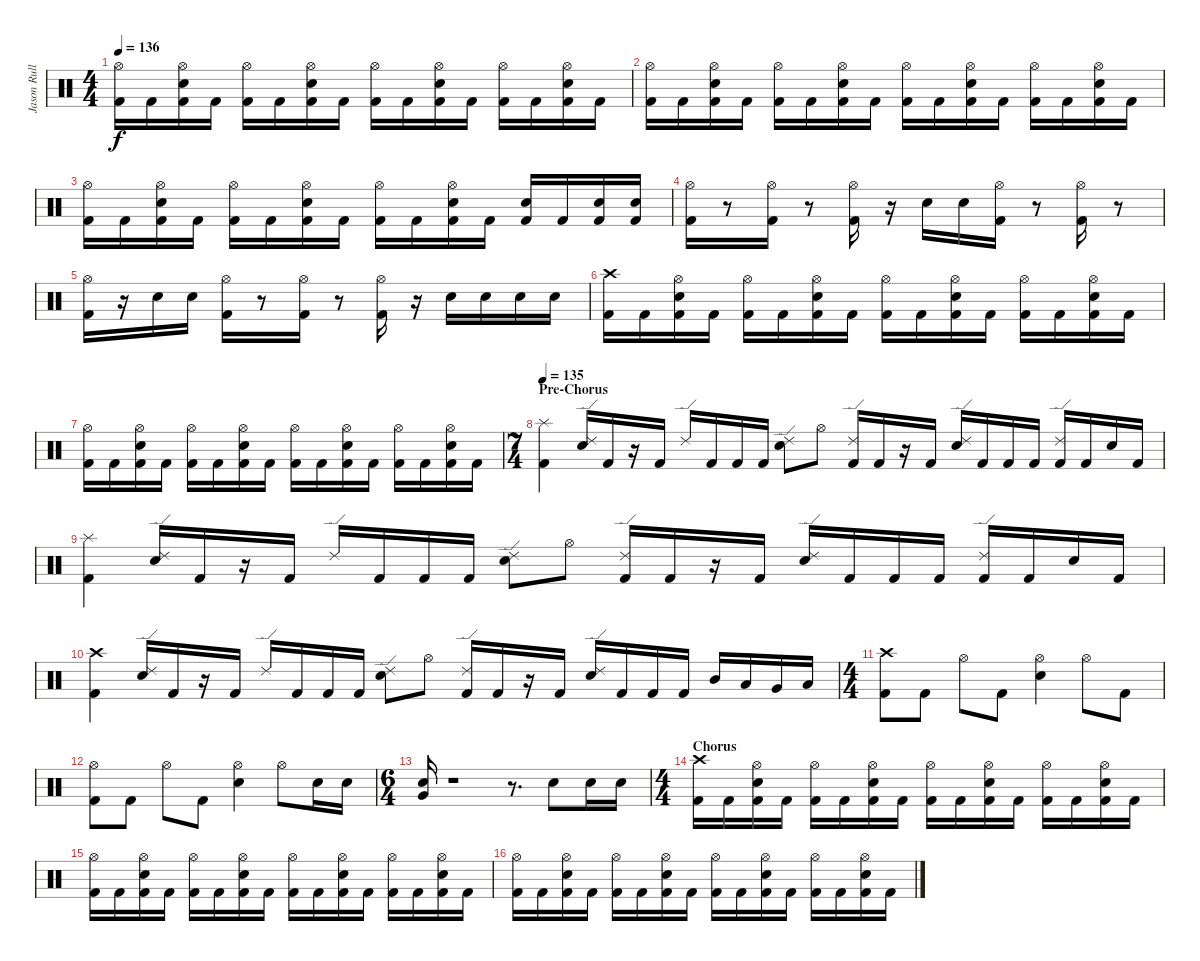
\track ("Jason Rullo" "Jason Rull") {instrument percussion}
\staff {score}
\articulation defaults
\ts (4 4)
\tempo 136
\clef neutral
\ks c
("Kick (hit) 2" "Hi-Hat (open)").16{dy f} "Kick (hit) 2".16 ("Kick (hit) 2" "Electric Snare (hit)" "Hi-Hat (open)").16 "Kick (hit) 2".16 ("Kick (hit) 2" "Hi-Hat (open)").16 "Kick (hit) 2".16 ("Kick (hit) 2" "Electric Snare (hit)" "Hi-Hat (open)").16 "Kick (hit) 2".16 ("Kick (hit) 2" "Hi-Hat (open)").16 "Kick (hit) 2".16 ("Kick (hit) 2" "Electric Snare (hit)" "Hi-Hat (open)").16 "Kick (hit) 2".16 ("Kick (hit) 2" "Hi-Hat (open)").16 "Kick (hit) 2".16 ("Kick (hit) 2" "Electric Snare (hit)" "Hi-Hat (open)").16 "Kick (hit) 2".16 |
("Kick (hit) 2" "Hi-Hat (open)").16 "Kick (hit) 2".16 ("Kick (hit) 2" "Electric Snare (hit)" "Hi-Hat (open)").16 "Kick (hit) 2".16 ("Kick (hit) 2" "Hi-Hat (open)").16 "Kick (hit) 2".16 ("Kick (hit) 2" "Electric Snare (hit)" "Hi-Hat (open)").16 "Kick (hit) 2".16 ("Kick (hit) 2" "Hi-Hat (open)").16 "Kick (hit) 2".16 ("Kick (hit) 2" "Electric Snare (hit)" "Hi-Hat (open)").16 "Kick (hit) 2".16 ("Kick (hit) 2" "Hi-Hat (open)").16 "Kick (hit) 2".16 ("Kick (hit) 2" "Electric Snare (hit)" "Hi-Hat (open)").16 "Kick (hit) 2".16 |
("Kick (hit) 2" "Hi-Hat (open)").16 "Kick (hit) 2".16 ("Kick (hit) 2" "Electric Snare (hit)" "Hi-Hat (open)").16 "Kick (hit) 2".16 ("Kick (hit) 2" "Hi-Hat (open)").16 "Kick (hit) 2".16 ("Kick (hit) 2" "Electric Snare (hit)" "Hi-Hat (open)").16 "Kick (hit) 2".16 ("Kick (hit) 2" "Hi-Hat (open)").16 "Kick (hit) 2".16 ("Kick (hit) 2" "Electric Snare (hit)" "Hi-Hat (open)").16 "Kick (hit) 2".16 ("Kick (hit) 2" "Electric Snare (hit)").16 "Kick (hit) 2".16 ("Kick (hit) 2" "Electric Snare (hit)").16 ("Kick (hit) 2" "Electric Snare (hit)").16 |
("Hi-Hat (open)" "Kick (hit) 2").16 r.8 ("Hi-Hat (open)" "Kick (hit) 2").16 r.8 ("Hi-Hat (open)" "Kick (hit) 2").16 r.16 "Electric Snare (hit)".16 "Electric Snare (hit)".16 ("Hi-Hat (open)" "Kick (hit) 2").16 r.8 ("Hi-Hat (open)" "Kick (hit) 2").16 r.8 |
("Hi-Hat (open)" "Kick (hit) 2").16 r.16 "Electric Snare (hit)".16 "Electric Snare (hit)".16 ("Hi-Hat (open)" "Kick (hit) 2").16 r.8 ("Hi-Hat (open)" "Kick (hit) 2").16 r.8 ("Hi-Hat (open)" "Kick (hit) 2").16 r.16 "Electric Snare (hit)".16 "Electric Snare (hit)".16 "Electric Snare (hit)".16 "Electric Snare (hit)".16 |
("Kick (hit) 2" "Crash high (hit)").16 "Kick (hit) 2".16 ("Hi-Hat (open)" "Electric Snare (hit)" "Kick (hit) 2").16 "Kick (hit) 2".16 ("Hi-Hat (open)" "Kick (hit) 2").16 "Kick (hit) 2".16 ("Hi-Hat (open)" "Electric Snare (hit)" "Kick (hit) 2").16 "Kick (hit) 2".16 ("Hi-Hat (open)" "Kick (hit) 2").16 "Kick (hit) 2".16 ("Hi-Hat (open)" "Electric Snare (hit)" "Kick (hit) 2").16 "Kick (hit) 2".16 ("Hi-Hat (open)" "Kick (hit) 2").16 "Kick (hit) 2".16 ("Hi-Hat (open)" "Electric Snare (hit)" "Kick (hit) 2").16 "Kick (hit) 2".16 |
("Kick (hit) 2" "Hi-Hat (open)").16 "Kick (hit) 2".16 ("Kick (hit) 2" "Electric Snare (hit)" "Hi-Hat (open)").16 "Kick (hit) 2".16 ("Kick (hit) 2" "Hi-Hat (open)").16 "Kick (hit) 2".16 ("Kick (hit) 2" "Electric Snare (hit)" "Hi-Hat (open)").16 "Kick (hit) 2".16 ("Kick (hit) 2" "Hi-Hat (open)").16 "Kick (hit) 2".16 ("Kick (hit) 2" "Electric Snare (hit)" "Hi-Hat (open)").16 "Kick (hit) 2".16 ("Kick (hit) 2" "Hi-Hat (open)").16 "Kick (hit) 2".16 ("Kick (hit) 2" "Electric Snare (hit)" "Hi-Hat (open)").16 "Kick (hit) 2".16 |
\ts (7 4)
\section ("" "Pre-Chorus")
\tempo 135
("Splash (hit)" "Kick (hit) 2").4 ("Electric Snare (hit)" "Ride (edge) 2").16 "Kick (hit) 2".16 r.16 "Kick (hit) 2".16 "Ride (edge) 2".16 "Kick (hit) 2".16 "Kick (hit) 2".16 "Kick (hit) 2".16 ("Electric Snare (hit)" "Ride (edge) 2").8 "Hi-Hat (open)".8 ("Kick (hit) 2" "Ride (edge) 2").16 "Kick (hit) 2".16 r.16 "Kick (hit) 2".16 ("Electric Snare (hit)" "Ride (edge) 2").16 "Kick (hit) 2".16 "Kick (hit) 2".16 "Kick (hit) 2".16 ("Kick (hit) 2" "Ride (edge) 2").16 "Kick (hit) 2".16 "Electric Snare (hit)".16 "Kick (hit) 2".16 |
("Splash (hit)" "Kick (hit) 2").4 ("Electric Snare (hit)" "Ride (edge) 2").16 "Kick (hit) 2".16 r.16 "Kick (hit) 2".16 "Ride (edge) 2".16 "Kick (hit) 2".16 "Kick (hit) 2".16 "Kick (hit) 2".16 ("Electric Snare (hit)" "Ride (edge) 2").8 "Hi-Hat (open)".8 ("Kick (hit) 2" "Ride (edge) 2").16 "Kick (hit) 2".16 r.16 "Kick (hit) 2".16 ("Electric Snare (hit)" "Ride (edge) 2").16 "Kick (hit) 2".16 "Kick (hit) 2".16 "Kick (hit) 2".16 ("Kick (hit) 2" "Ride (edge) 2").16 "Kick (hit) 2".16 "Electric Snare (hit)".16 "Kick (hit) 2".16 |
("Crash high (hit)" "Kick (hit) 2").4 ("Electric Snare (hit)" "Ride (edge) 2").16 "Kick (hit) 2".16 r.16 "Kick (hit) 2".16 "Ride (edge) 2".16 "Kick (hit) 2".16 "Kick (hit) 2".16 "Kick (hit) 2".16 ("Electric Snare (hit)" "Ride (edge) 2").8 "Hi-Hat (open)".8 ("Kick (hit) 2" "Ride (edge) 2").16 "Kick (hit) 2".16 r.16 "Kick (hit) 2".16 ("Electric Snare (hit)" "Ride (edge) 2").16 "Kick (hit) 2".16 "Kick (hit) 2".16 "Kick (hit) 2".16 "Mid Tom (hit)".16 "Low Tom (hit)".16 "Very Low Tom (hit)".16 "Low Floor Tom (hit)".16 |
\ts (4 4)
("Kick (hit) 2" "Crash high (hit)").8 "Kick (hit) 2".8 "Hi-Hat (open)".8 "Kick (hit) 2".8 ("Electric Snare (hit)" "Hi-Hat (open)").4 "Hi-Hat (open)".8 "Kick (hit) 2".8 |
("Kick (hit) 2" "Hi-Hat (open)").8 "Kick (hit) 2".8 "Hi-Hat (open)".8 "Kick (hit) 2".8 ("Electric Snare (hit)" "Hi-Hat (open)").4 "Hi-Hat (open)".8 "Electric Snare (hit)".16 "Electric Snare (hit)".16 |
\ts (6 4)
("Very Low Tom (hit)" "Electric Snare (hit)").16 r.1 r.8{d} "Electric Snare (hit)".8 "Electric Snare (hit)".16 "Electric Snare (hit)".16 |
\ts (4 4)
\section ("" "Chorus")
("Kick (hit) 2" "Crash high (hit)").16 "Kick (hit) 2".16 ("Hi-Hat (open)" "Electric Snare (hit)" "Kick (hit) 2").16 "Kick (hit) 2".16 ("Hi-Hat (open)" "Kick (hit) 2").16 "Kick (hit) 2".16 ("Hi-Hat (open)" "Electric Snare (hit)" "Kick (hit) 2").16 "Kick (hit) 2".16 ("Hi-Hat (open)" "Kick (hit) 2").16 "Kick (hit) 2".16 ("Hi-Hat (open)" "Electric Snare (hit)" "Kick (hit) 2").16 "Kick (hit) 2".16 ("Hi-Hat (open)" "Kick (hit) 2").16 "Kick (hit) 2".16 ("Hi-Hat (open)" "Electric Snare (hit)" "Kick (hit) 2").16 "Kick (hit) 2".16 |
("Kick (hit) 2" "Hi-Hat (open)").16 "Kick (hit) 2".16 ("Kick (hit) 2" "Electric Snare (hit)" "Hi-Hat (open)").16 "Kick (hit) 2".16 ("Kick (hit) 2" "Hi-Hat (open)").16 "Kick (hit) 2".16 ("Kick (hit) 2" "Electric Snare (hit)" "Hi-Hat (open)").16 "Kick (hit) 2".16 ("Kick (hit) 2" "Hi-Hat (open)").16 "Kick (hit) 2".16 ("Kick (hit) 2" "Electric Snare (hit)" "Hi-Hat (open)").16 "Kick (hit) 2".16 ("Kick (hit) 2" "Hi-Hat (open)").16 "Kick (hit) 2".16 ("Kick (hit) 2" "Electric Snare (hit)" "Hi-Hat (open)").16 "Kick (hit) 2".16 |
("Kick (hit) 2" "Hi-Hat (open)").16 "Kick (hit) 2".16 ("Kick (hit) 2" "Electric Snare (hit)" "Hi-Hat (open)").16 "Kick (hit) 2".16 ("Kick (hit) 2" "Hi-Hat (open)").16 "Kick (hit) 2".16 ("Kick (hit) 2" "Electric Snare (hit)" "Hi-Hat (open)").16 "Kick (hit) 2".16 ("Kick (hit) 2" "Hi-Hat (open)").16 "Kick (hit) 2".16 ("Kick (hit) 2" "Electric Snare (hit)" "Hi-Hat (open)").16 "Kick (hit) 2".16 ("Kick (hit) 2" "Hi-Hat (open)").16 "Kick (hit) 2".16 ("Kick (hit) 2" "Electric Snare (hit)" "Hi-Hat (open)").16 "Kick (hit) 2".16
